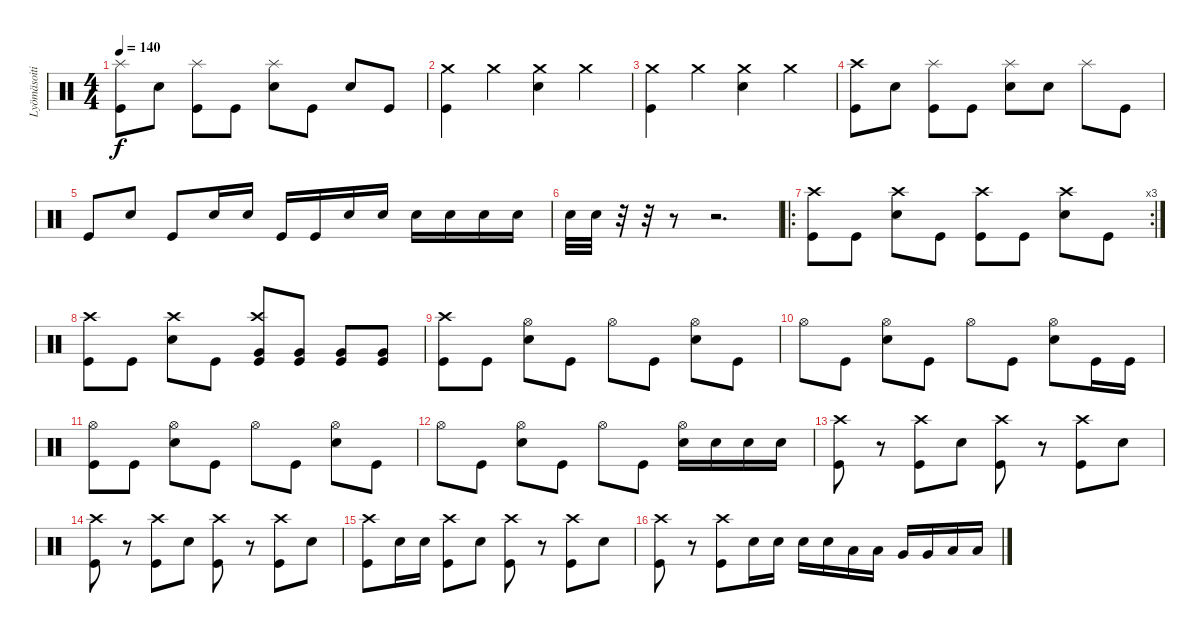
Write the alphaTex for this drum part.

\track ("Lyömäsoitin" "Lyömäsoiti") {instrument percussion}
\staff {score}
\articulation defaults
\ts (4 4)
\tempo 140
\clef neutral
\ks c
("Splash (hit)" "Kick (hit)").8{dy f} "Electric Snare (hit)".8 ("Splash (hit)" "Kick (hit)").8 "Kick (hit)".8 ("Splash (hit)" "Electric Snare (hit)").8 "Kick (hit)".8 "Electric Snare (hit)".8 "Kick (hit)".8 |
("Crash medium (hit)" "Kick (hit)").4 "Crash medium (hit)".4 ("Crash medium (hit)" "Electric Snare (hit)").4 "Crash medium (hit)".4 |
("Crash medium (hit)" "Kick (hit)").4 "Crash medium (hit)".4 ("Crash medium (hit)" "Electric Snare (hit)").4 "Crash medium (hit)".4 |
("Crash high (hit)" "Kick (hit)").8 "Electric Snare (hit)".8 ("Splash (hit)" "Kick (hit)").8 "Kick (hit)".8 ("Splash (hit)" "Electric Snare (hit)").8 "Electric Snare (hit)".8 "Splash (hit)".8 "Kick (hit)".8 |
"Kick (hit)".8 "Electric Snare (hit)".8 "Kick (hit)".8 "Electric Snare (hit)".16 "Electric Snare (hit)".16 "Kick (hit)".16 "Kick (hit)".16 "Electric Snare (hit)".16 "Electric Snare (hit)".16 "Electric Snare (hit)".16 "Electric Snare (hit)".16 "Electric Snare (hit)".16 "Electric Snare (hit)".16 |
"Electric Snare (hit)".32 "Electric Snare (hit)".32 r.32 r.32 r.8 r.2{d} |
\ro
\rc 3
("Crash high (hit)" "Kick (hit)").8 "Kick (hit)".8 ("Crash high (hit)" "Electric Snare (hit)").8 "Kick (hit)".8 ("Crash high (hit)" "Kick (hit)").8 "Kick (hit)".8 ("Crash high (hit)" "Electric Snare (hit)").8 "Kick (hit)".8 |
("Crash high (hit)" "Kick (hit)").8 "Kick (hit)".8 ("Crash high (hit)" "Electric Snare (hit)").8 "Kick (hit)".8 ("Crash high (hit)" "Very Low Tom (hit)" "Kick (hit)").8 ("Very Low Tom (hit)" "Kick (hit)").8 ("Very Low Tom (hit)" "Kick (hit)").8 ("Very Low Tom (hit)" "Kick (hit)").8 |
("Crash high (hit)" "Kick (hit)").8 "Kick (hit)".8 ("Hi-Hat (open)" "Electric Snare (hit)").8 "Kick (hit)".8 "Hi-Hat (open)".8 "Kick (hit)".8 ("Hi-Hat (open)" "Electric Snare (hit)").8 "Kick (hit)".8 |
"Hi-Hat (open)".8 "Kick (hit)".8 ("Hi-Hat (open)" "Electric Snare (hit)").8 "Kick (hit)".8 "Hi-Hat (open)".8 "Kick (hit)".8 ("Hi-Hat (open)" "Electric Snare (hit)").8 "Kick (hit)".16 "Kick (hit)".16 |
("Hi-Hat (open)" "Kick (hit)").8 "Kick (hit)".8 ("Hi-Hat (open)" "Electric Snare (hit)").8 "Kick (hit)".8 "Hi-Hat (open)".8 "Kick (hit)".8 ("Hi-Hat (open)" "Electric Snare (hit)").8 "Kick (hit)".8 |
"Hi-Hat (open)".8 "Kick (hit)".8 ("Hi-Hat (open)" "Electric Snare (hit)").8 "Kick (hit)".8 "Hi-Hat (open)".8 "Kick (hit)".8 ("Hi-Hat (open)" "Electric Snare (hit)").16 "Electric Snare (hit)".16 "Electric Snare (hit)".16 "Electric Snare (hit)".16 |
("Crash high (hit)" "Kick (hit)").8 r.8 ("Crash high (hit)" "Kick (hit)").8 "Electric Snare (hit)".8 ("Crash high (hit)" "Kick (hit)").8 r.8 ("Crash high (hit)" "Kick (hit)").8 "Electric Snare (hit)".8 |
("Crash high (hit)" "Kick (hit)").8 r.8 ("Crash high (hit)" "Kick (hit)").8 "Electric Snare (hit)".8 ("Crash high (hit)" "Kick (hit)").8 r.8 ("Crash high (hit)" "Kick (hit)").8 "Electric Snare (hit)".8 |
("Crash high (hit)" "Kick (hit)").8 "Electric Snare (hit)".16 "Electric Snare (hit)".16 ("Crash high (hit)" "Kick (hit)").8 "Electric Snare (hit)".8 ("Crash high (hit)" "Kick (hit)").8 r.8 ("Crash high (hit)" "Kick (hit)").8 "Electric Snare (hit)".8 |
("Crash high (hit)" "Kick (hit)").8 r.8 ("Crash high (hit)" "Kick (hit)").8 "Electric Snare (hit)".16 "Electric Snare (hit)".16 "Electric Snare (hit)".16 "Electric Snare (hit)".16 "Low Tom (hit)".16 "Low Tom (hit)".16 "Very Low Tom (hit)".16 "Very Low Tom (hit)".16 "Low Floor Tom (hit)".16 "Low Floor Tom (hit)".16
